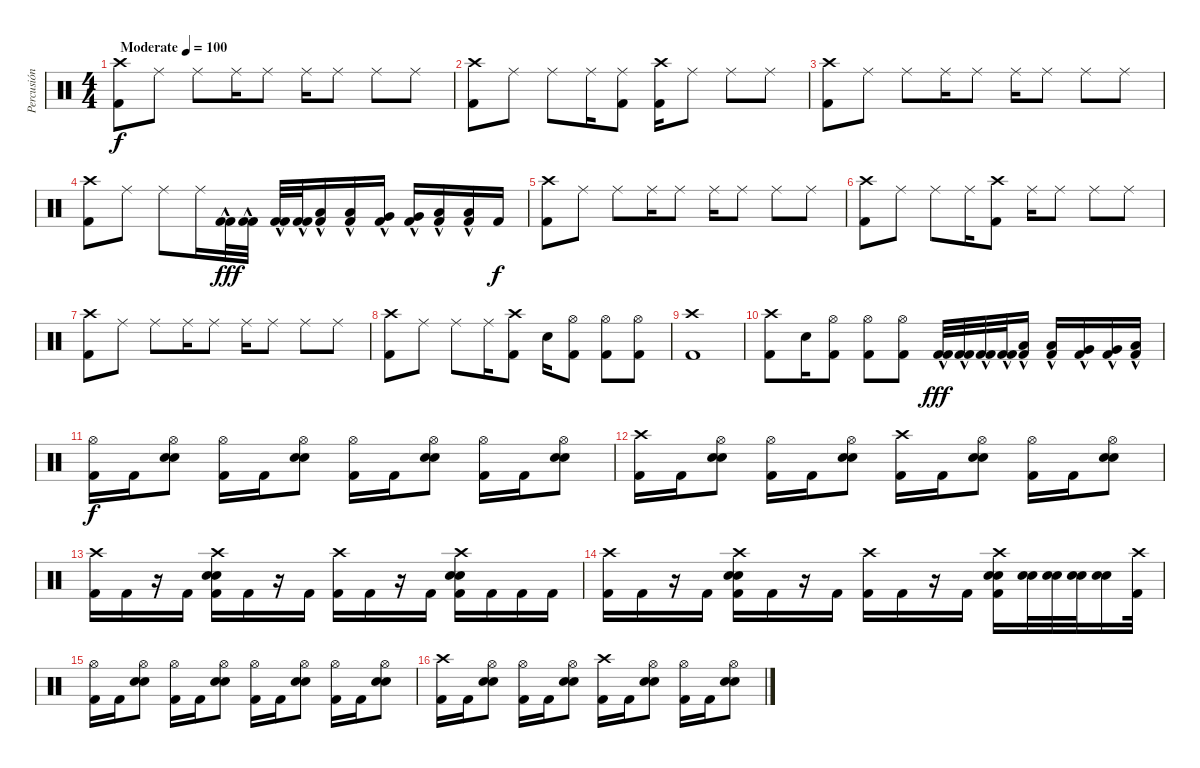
\track ("Percusión" "Percusión") {instrument percussion}
\staff {score}
\articulation defaults
\ts (4 4)
\tempo (100 "Moderate")
\clef neutral
\ks c
("Crash high (hit)" "Kick (hit) 2").8{dy f} "Ride (middle)".8 "Ride (middle)".8 "Ride (middle)".16 "Ride (middle)".8 "Ride (middle)".16 "Ride (middle)".8 "Ride (middle)".8 "Ride (middle)".8 |
("Crash high (hit)" "Kick (hit) 2").8 "Ride (middle)".8 "Ride (middle)".8 "Ride (middle)".16 ("Ride (middle)" "Kick (hit) 2").8 ("Crash high (hit)" "Kick (hit) 2").16 "Ride (middle)".8 "Ride (middle)".8 "Ride (middle)".8 |
("Crash high (hit)" "Kick (hit) 2").8 "Ride (middle)".8 "Ride (middle)".8 "Ride (middle)".16 "Ride (middle)".8 "Ride (middle)".16 "Ride (middle)".8 "Ride (middle)".8 "Ride (middle)".8 |
("Crash high (hit)" "Kick (hit) 2").8 "Ride (middle)".8 "Ride (middle)".8 "Ride (middle)".16 ("Kick (hit) 2"{hac} "Kick (hit) 2").32{dy fff} ("Kick (hit) 2"{hac} "Kick (hit) 2").32 ("Kick (hit) 2"{hac} "Kick (hit) 2").32 ("Kick (hit) 2"{hac} "Kick (hit) 2").32 ("Low Tom (hit)"{hac} "Kick (hit) 2").16 ("Low Tom (hit)"{hac} "Kick (hit) 2").16 ("Very Low Tom (hit)"{hac} "Kick (hit) 2").16 ("Very Low Tom (hit)"{hac} "Kick (hit) 2").16 ("Low Floor Tom (hit)"{hac} "Kick (hit) 2").16 ("Low Floor Tom (hit)"{hac} "Kick (hit) 2"{hac}).16 "Kick (hit) 2".16{dy f} |
("Crash high (hit)" "Kick (hit) 2").8 "Ride (middle)".8 "Ride (middle)".8 "Ride (middle)".16 "Ride (middle)".8 "Ride (middle)".16 "Ride (middle)".8 "Ride (middle)".8 "Ride (middle)".8 |
("Crash high (hit)" "Kick (hit) 2").8 "Ride (middle)".8 "Ride (middle)".8 "Ride (middle)".16 ("Crash high (hit)" "Kick (hit) 2").8 "Ride (middle)".16 "Ride (middle)".8 "Ride (middle)".8 "Ride (middle)".8 |
("Crash high (hit)" "Kick (hit) 2").8 "Ride (middle)".8 "Ride (middle)".8 "Ride (middle)".16 "Ride (middle)".8 "Ride (middle)".16 "Ride (middle)".8 "Ride (middle)".8 "Ride (middle)".8 |
("Crash high (hit)" "Kick (hit) 2").8 "Ride (middle)".8 "Ride (middle)".8 "Ride (middle)".16 ("Crash high (hit)" "Kick (hit) 2").8 "Electric Snare (hit)".16 ("Hi-Hat (open)" "Kick (hit) 2").8 ("Hi-Hat (open)" "Kick (hit) 2").8 ("Hi-Hat (open)" "Kick (hit) 2").8 |
("Crash high (hit)" "Kick (hit) 2").1 |
("Crash high (hit)" "Kick (hit) 2").8 "Electric Snare (hit)".16 ("Hi-Hat (open)" "Kick (hit) 2").8 ("Hi-Hat (open)" "Kick (hit) 2").8 ("Hi-Hat (open)" "Kick (hit) 2").8 ("Kick (hit) 2"{hac} "Kick (hit) 2").32{dy fff} ("Kick (hit) 2"{hac} "Kick (hit) 2").32 ("Kick (hit) 2"{hac} "Kick (hit) 2").32 ("Kick (hit) 2"{hac} "Kick (hit) 2").32 ("Low Tom (hit)"{hac} "Kick (hit) 2").16 ("Low Tom (hit)"{hac} "Kick (hit) 2").16 ("Very Low Tom (hit)"{hac} "Kick (hit) 2").16 ("Very Low Tom (hit)"{hac} "Kick (hit) 2").16 ("Low Floor Tom (hit)"{hac} "Kick (hit) 2").16 |
("Hi-Hat (open)" "Kick (hit) 2").16{dy f} "Kick (hit) 2".16 ("Hi-Hat (open)" "Electric Snare (hit)" "Electric Snare (hit)").8 ("Hi-Hat (open)" "Kick (hit) 2").16 "Kick (hit) 2".16 ("Hi-Hat (open)" "Electric Snare (hit)" "Electric Snare (hit)").8 ("Hi-Hat (open)" "Kick (hit) 2").16 "Kick (hit) 2".16 ("Hi-Hat (open)" "Electric Snare (hit)" "Electric Snare (hit)").8 ("Hi-Hat (open)" "Kick (hit) 2").16 "Kick (hit) 2".16 ("Hi-Hat (open)" "Electric Snare (hit)" "Electric Snare (hit)").8 |
("Crash high (hit)" "Kick (hit) 2").16 "Kick (hit) 2".16 ("Hi-Hat (open)" "Electric Snare (hit)" "Electric Snare (hit)").8 ("Hi-Hat (open)" "Kick (hit) 2").16 "Kick (hit) 2".16 ("Hi-Hat (open)" "Electric Snare (hit)" "Electric Snare (hit)").8 ("Crash high (hit)" "Kick (hit) 2").16 "Kick (hit) 2".16 ("Hi-Hat (open)" "Electric Snare (hit)" "Electric Snare (hit)").8 ("Hi-Hat (open)" "Kick (hit) 2").16 "Kick (hit) 2".16 ("Hi-Hat (open)" "Electric Snare (hit)" "Electric Snare (hit)").8 |
("Crash high (hit)" "Kick (hit) 2").16 "Kick (hit) 2".16 r.16 "Kick (hit) 2".16 ("Crash high (hit)" "Electric Snare (hit)" "Electric Snare (hit)" "Kick (hit) 2").16 "Kick (hit) 2".16 r.16 "Kick (hit) 2".16 ("Crash high (hit)" "Kick (hit) 2").16 "Kick (hit) 2".16 r.16 "Kick (hit) 2".16 ("Crash high (hit)" "Electric Snare (hit)" "Electric Snare (hit)" "Kick (hit) 2").16 "Kick (hit) 2".16 "Kick (hit) 2".16 "Kick (hit) 2".16 |
("Crash high (hit)" "Kick (hit) 2").16 "Kick (hit) 2".16 r.16 "Kick (hit) 2".16 ("Crash high (hit)" "Electric Snare (hit)" "Electric Snare (hit)" "Kick (hit) 2").16 "Kick (hit) 2".16 r.16 "Kick (hit) 2".16 ("Crash high (hit)" "Kick (hit) 2").16 "Kick (hit) 2".16 r.16 "Kick (hit) 2".16 ("Crash high (hit)" "Electric Snare (hit)" "Electric Snare (hit)" "Kick (hit) 2").16 ("Electric Snare (hit)" "Electric Snare (hit)").32 ("Electric Snare (hit)" "Electric Snare (hit)").32 ("Electric Snare (hit)" "Electric Snare (hit)").32 ("Electric Snare (hit)" "Electric Snare (hit)").16 ("Crash high (hit)" "Kick (hit) 2").32 |
("Hi-Hat (open)" "Kick (hit) 2").16 "Kick (hit) 2".16 ("Hi-Hat (open)" "Electric Snare (hit)" "Electric Snare (hit)").8 ("Hi-Hat (open)" "Kick (hit) 2").16 "Kick (hit) 2".16 ("Hi-Hat (open)" "Electric Snare (hit)" "Electric Snare (hit)").8 ("Hi-Hat (open)" "Kick (hit) 2").16 "Kick (hit) 2".16 ("Hi-Hat (open)" "Electric Snare (hit)" "Electric Snare (hit)").8 ("Hi-Hat (open)" "Kick (hit) 2").16 "Kick (hit) 2".16 ("Hi-Hat (open)" "Electric Snare (hit)" "Electric Snare (hit)").8 |
("Crash high (hit)" "Kick (hit) 2").16 "Kick (hit) 2".16 ("Hi-Hat (open)" "Electric Snare (hit)" "Electric Snare (hit)").8 ("Hi-Hat (open)" "Kick (hit) 2").16 "Kick (hit) 2".16 ("Hi-Hat (open)" "Electric Snare (hit)" "Electric Snare (hit)").8 ("Crash high (hit)" "Kick (hit) 2").16 "Kick (hit) 2".16 ("Hi-Hat (open)" "Electric Snare (hit)" "Electric Snare (hit)").8 ("Hi-Hat (open)" "Kick (hit) 2").16 "Kick (hit) 2".16 ("Hi-Hat (open)" "Electric Snare (hit)" "Electric Snare (hit)").8
